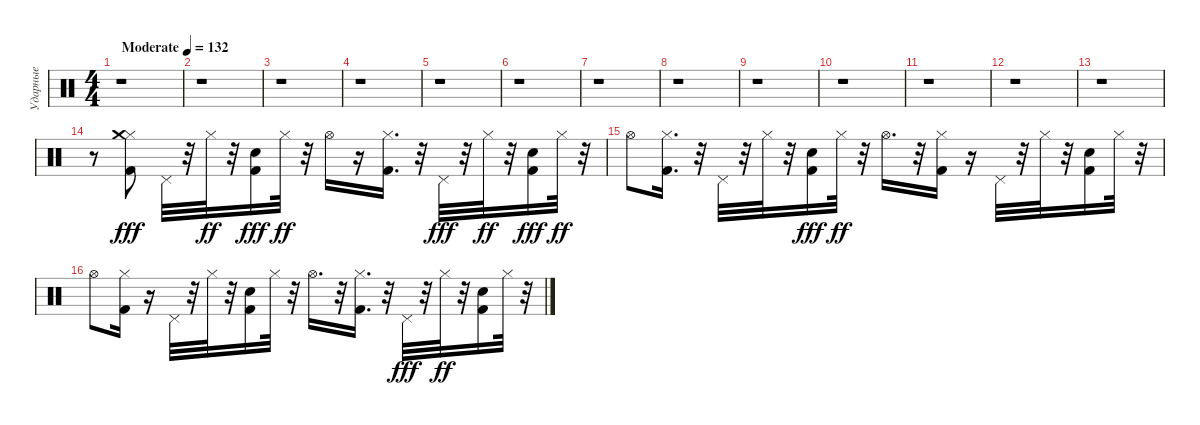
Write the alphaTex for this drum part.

\track ("Ударные" "Ударные") {instrument percussion}
\staff {score}
\articulation defaults
\ts (4 4)
\tempo (132 "Moderate")
\clef neutral
\ks c
r.1{dy fff} |
r.1 |
r.1 |
r.1 |
r.1 |
r.1 |
r.1 |
r.1 |
r.1 |
r.1 |
r.1 |
r.1 |
r.1 |
r.8 ("Kick (hit) 2" "Hi-Hat (closed)" "Crash medium (hit)").8{balance 8} "Pedal Hi-Hat (hit)".32 r.32 "Hi-Hat (closed)".32{dy ff} r.32 ("Kick (hit) 2" "Snare (hit) 2").16{dy fff} "Hi-Hat (closed)".32{dy ff} r.32 "Hi-Hat (open)".16 r.16 ("Kick (hit) 2" "Hi-Hat (closed)").16{d} r.32 "Pedal Hi-Hat (hit)".32{dy fff} r.32 "Hi-Hat (closed)".32{dy ff} r.32 ("Kick (hit) 2" "Snare (hit) 2").16{dy fff} "Hi-Hat (closed)".32{dy ff} r.32 |
"Hi-Hat (open)".8 ("Kick (hit) 2" "Hi-Hat (closed)").16{d} r.32 "Pedal Hi-Hat (hit)".32 r.32 "Hi-Hat (closed)".32 r.32 ("Kick (hit) 2" "Snare (hit) 2").16{dy fff} "Hi-Hat (closed)".32{dy ff} r.32 "Hi-Hat (open)".16{d} r.32 ("Kick (hit) 2" "Hi-Hat (closed)").16 r.16 "Pedal Hi-Hat (hit)".32 r.32 "Hi-Hat (closed)".32 r.32 ("Kick (hit) 2" "Snare (hit) 2").16 "Hi-Hat (closed)".32 r.32 |
"Hi-Hat (open)".8 ("Kick (hit) 2" "Hi-Hat (closed)").16 r.16 "Pedal Hi-Hat (hit)".32 r.32 "Hi-Hat (closed)".32 r.32 ("Kick (hit) 2" "Snare (hit) 2").16 "Hi-Hat (closed)".32 r.32 "Hi-Hat (open)".16{d} r.32 ("Kick (hit) 2" "Hi-Hat (closed)").16{d} r.32 "Pedal Hi-Hat (hit)".32{dy fff} r.32 "Hi-Hat (closed)".32{dy ff} r.32 ("Kick (hit) 2" "Snare (hit) 2").16 "Hi-Hat (closed)".32 r.32
